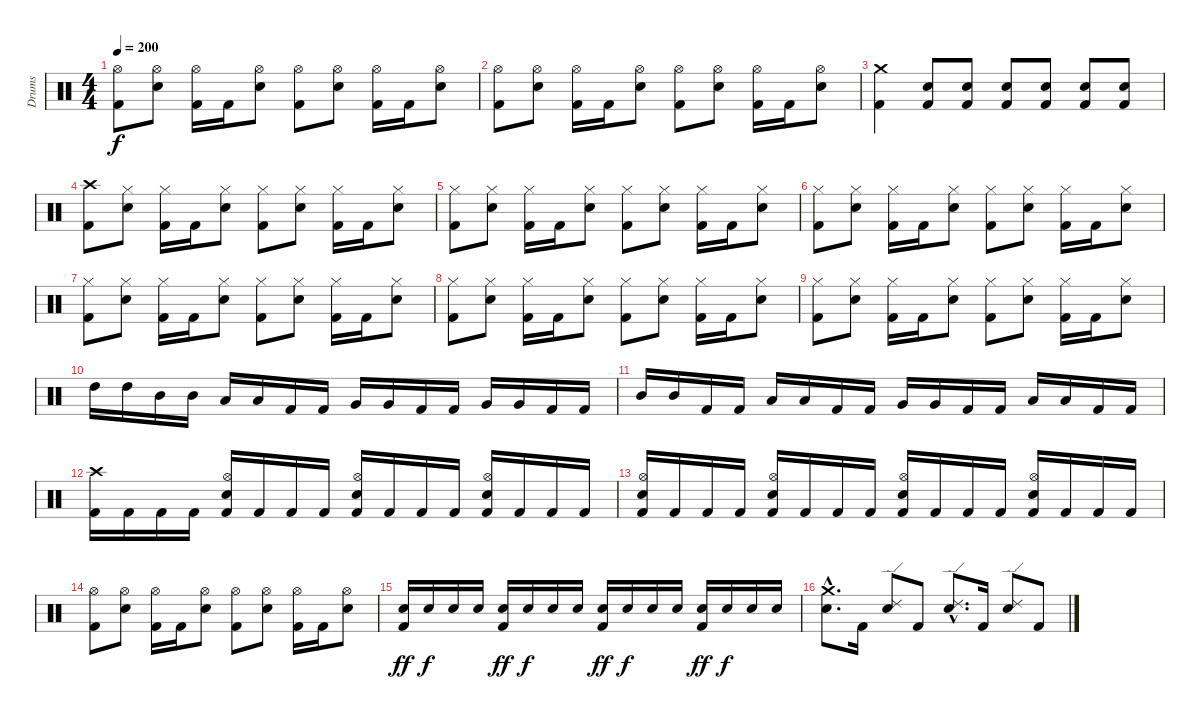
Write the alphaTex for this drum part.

\track ("Drums" "Drums") {instrument percussion}
\staff {score}
\articulation defaults
\ts (4 4)
\tempo 200
\clef neutral
\ks c
("Kick (hit) 2" "Hi-Hat (open)").8{dy f} ("Snare (hit) 2" "Hi-Hat (open)").8 ("Kick (hit) 2" "Hi-Hat (open)").16 "Kick (hit) 2".16 ("Snare (hit) 2" "Hi-Hat (open)").8 ("Kick (hit) 2" "Hi-Hat (open)").8 ("Snare (hit) 2" "Hi-Hat (open)").8 ("Kick (hit) 2" "Hi-Hat (open)").16 "Kick (hit) 2".16 ("Snare (hit) 2" "Hi-Hat (open)").8 |
("Kick (hit) 2" "Hi-Hat (open)").8 ("Snare (hit) 2" "Hi-Hat (open)").8 ("Kick (hit) 2" "Hi-Hat (open)").16 "Kick (hit) 2".16 ("Snare (hit) 2" "Hi-Hat (open)").8 ("Kick (hit) 2" "Hi-Hat (open)").8 ("Snare (hit) 2" "Hi-Hat (open)").8 ("Kick (hit) 2" "Hi-Hat (open)").16 "Kick (hit) 2".16 ("Snare (hit) 2" "Hi-Hat (open)").8 |
("Kick (hit) 2" "Crash medium (hit)").4 ("Kick (hit) 2" "Snare (hit) 2").8 ("Kick (hit) 2" "Snare (hit) 2").8 ("Kick (hit) 2" "Snare (hit) 2").8 ("Kick (hit) 2" "Snare (hit) 2").8 ("Kick (hit) 2" "Snare (hit) 2").8 ("Kick (hit) 2" "Snare (hit) 2").8 |
\section ("" "")
("Kick (hit) 2" "Crash high (hit)").8 ("Snare (hit) 2" "Hi-Hat (closed)").8 ("Kick (hit) 2" "Hi-Hat (closed)").16 "Kick (hit) 2".16 ("Snare (hit) 2" "Hi-Hat (closed)").8 ("Kick (hit) 2" "Hi-Hat (closed)").8 ("Snare (hit) 2" "Hi-Hat (closed)").8 ("Kick (hit) 2" "Hi-Hat (closed)").16 "Kick (hit) 2".16 ("Snare (hit) 2" "Hi-Hat (closed)").8 |
("Kick (hit) 2" "Hi-Hat (closed)").8 ("Snare (hit) 2" "Hi-Hat (closed)").8 ("Kick (hit) 2" "Hi-Hat (closed)").16 "Kick (hit) 2".16 ("Snare (hit) 2" "Hi-Hat (closed)").8 ("Kick (hit) 2" "Hi-Hat (closed)").8 ("Snare (hit) 2" "Hi-Hat (closed)").8 ("Kick (hit) 2" "Hi-Hat (closed)").16 "Kick (hit) 2".16 ("Snare (hit) 2" "Hi-Hat (closed)").8 |
("Kick (hit) 2" "Hi-Hat (closed)").8 ("Snare (hit) 2" "Hi-Hat (closed)").8 ("Kick (hit) 2" "Hi-Hat (closed)").16 "Kick (hit) 2".16 ("Snare (hit) 2" "Hi-Hat (closed)").8 ("Kick (hit) 2" "Hi-Hat (closed)").8 ("Snare (hit) 2" "Hi-Hat (closed)").8 ("Kick (hit) 2" "Hi-Hat (closed)").16 "Kick (hit) 2".16 ("Snare (hit) 2" "Hi-Hat (closed)").8 |
("Kick (hit) 2" "Hi-Hat (closed)").8 ("Snare (hit) 2" "Hi-Hat (closed)").8 ("Kick (hit) 2" "Hi-Hat (closed)").16 "Kick (hit) 2".16 ("Snare (hit) 2" "Hi-Hat (closed)").8 ("Kick (hit) 2" "Hi-Hat (closed)").8 ("Snare (hit) 2" "Hi-Hat (closed)").8 ("Kick (hit) 2" "Hi-Hat (closed)").16 "Kick (hit) 2".16 ("Snare (hit) 2" "Hi-Hat (closed)").8 |
("Kick (hit) 2" "Hi-Hat (closed)").8 ("Snare (hit) 2" "Hi-Hat (closed)").8 ("Kick (hit) 2" "Hi-Hat (closed)").16 "Kick (hit) 2".16 ("Snare (hit) 2" "Hi-Hat (closed)").8 ("Kick (hit) 2" "Hi-Hat (closed)").8 ("Snare (hit) 2" "Hi-Hat (closed)").8 ("Kick (hit) 2" "Hi-Hat (closed)").16 "Kick (hit) 2".16 ("Snare (hit) 2" "Hi-Hat (closed)").8 |
("Kick (hit) 2" "Hi-Hat (closed)").8 ("Snare (hit) 2" "Hi-Hat (closed)").8 ("Kick (hit) 2" "Hi-Hat (closed)").16 "Kick (hit) 2".16 ("Snare (hit) 2" "Hi-Hat (closed)").8 ("Kick (hit) 2" "Hi-Hat (closed)").8 ("Snare (hit) 2" "Hi-Hat (closed)").8 ("Kick (hit) 2" "Hi-Hat (closed)").16 "Kick (hit) 2".16 ("Snare (hit) 2" "Hi-Hat (closed)").8 |
"High Tom (hit)".16 "High Tom (hit)".16 "Mid Tom (hit)".16 "Mid Tom (hit)".16 "Low Tom (hit)".16 "Low Tom (hit)".16 "Kick (hit) 2".16 "Kick (hit) 2".16 "Very Low Tom (hit)".16 "Very Low Tom (hit)".16 "Kick (hit) 2".16 "Kick (hit) 2".16 "Very Low Tom (hit)".16 "Very Low Tom (hit)".16 "Kick (hit) 2".16 "Kick (hit) 2".16 |
"Mid Tom (hit)".16 "Mid Tom (hit)".16 "Kick (hit) 2".16 "Kick (hit) 2".16 "Low Tom (hit)".16 "Low Tom (hit)".16 "Kick (hit) 2".16 "Kick (hit) 2".16 "Very Low Tom (hit)".16 "Very Low Tom (hit)".16 "Kick (hit) 2".16 "Kick (hit) 2".16 "Low Floor Tom (hit)".16 "Low Floor Tom (hit)".16 "Kick (hit) 2".16 "Kick (hit) 2".16 |
\section ("" "")
("Kick (hit) 2" "Crash high (hit)").16 "Kick (hit) 2".16 "Kick (hit) 2".16 "Kick (hit) 2".16 ("Kick (hit) 2" "Snare (hit) 2" "Hi-Hat (open)").16 "Kick (hit) 2".16 "Kick (hit) 2".16 "Kick (hit) 2".16 ("Kick (hit) 2" "Snare (hit) 2" "Hi-Hat (open)").16 "Kick (hit) 2".16 "Kick (hit) 2".16 "Kick (hit) 2".16 ("Kick (hit) 2" "Snare (hit) 2" "Hi-Hat (open)").16 "Kick (hit) 2".16 "Kick (hit) 2".16 "Kick (hit) 2".16 |
("Kick (hit) 2" "Snare (hit) 2" "Hi-Hat (open)").16 "Kick (hit) 2".16 "Kick (hit) 2".16 "Kick (hit) 2".16 ("Kick (hit) 2" "Snare (hit) 2" "Hi-Hat (open)").16 "Kick (hit) 2".16 "Kick (hit) 2".16 "Kick (hit) 2".16 ("Kick (hit) 2" "Snare (hit) 2" "Hi-Hat (open)").16 "Kick (hit) 2".16 "Kick (hit) 2".16 "Kick (hit) 2".16 ("Kick (hit) 2" "Snare (hit) 2" "Hi-Hat (open)").16 "Kick (hit) 2".16 "Kick (hit) 2".16 "Kick (hit) 2".16 |
("Kick (hit) 2" "Hi-Hat (open)").8 ("Snare (hit) 2" "Hi-Hat (open)").8 ("Kick (hit) 2" "Hi-Hat (open)").16 "Kick (hit) 2".16 ("Snare (hit) 2" "Hi-Hat (open)").8 ("Kick (hit) 2" "Hi-Hat (open)").8 ("Snare (hit) 2" "Hi-Hat (open)").8 ("Kick (hit) 2" "Hi-Hat (open)").16 "Kick (hit) 2".16 ("Snare (hit) 2" "Hi-Hat (open)").8 |
("Kick (hit) 2" "Snare (hit) 2").16{dy ff} "Snare (hit) 2".16{dy f} "Snare (hit) 2".16 "Snare (hit) 2".16 ("Kick (hit) 2" "Snare (hit) 2").16{dy ff} "Snare (hit) 2".16{dy f} "Snare (hit) 2".16 "Snare (hit) 2".16 ("Kick (hit) 2" "Snare (hit) 2").16{dy ff} "Snare (hit) 2".16{dy f} "Snare (hit) 2".16 "Snare (hit) 2".16 ("Kick (hit) 2" "Snare (hit) 2").16{dy ff} "Snare (hit) 2".16{dy f} "Snare (hit) 2".16 "Snare (hit) 2".16 |
("Snare (hit) 2"{hac} "Crash medium (hit)"{hac}).8{d} "Kick (hit) 2".16 ("Snare (hit) 2" "Ride (edge) 2").8 "Kick (hit) 2".8 ("Snare (hit) 2"{hac} "Ride (edge) 2"{hac}).8{d} "Kick (hit) 2".16 ("Snare (hit) 2" "Ride (edge) 2").8 "Kick (hit) 2".8
